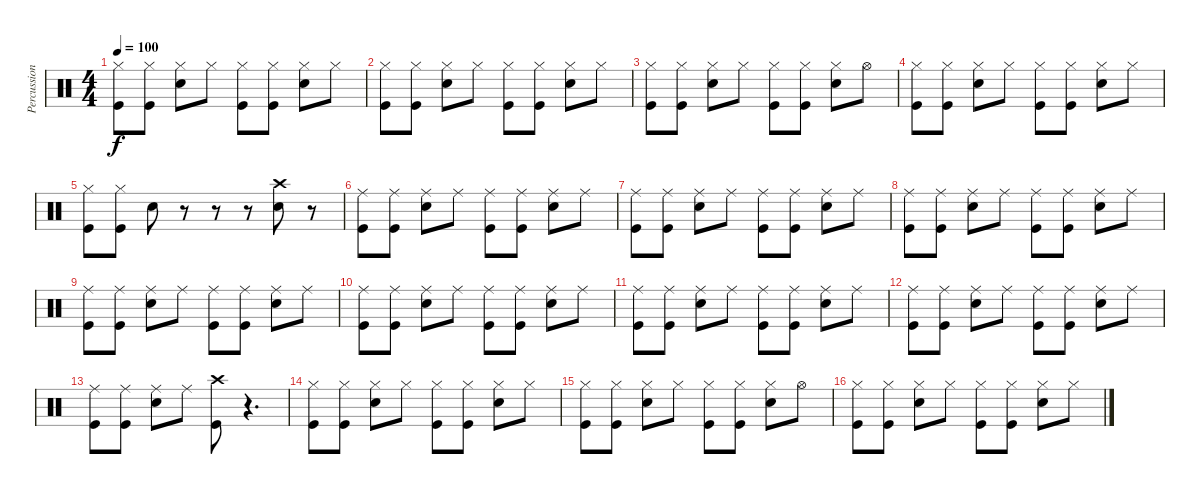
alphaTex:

\track ("Percussions" "Percussion") {instrument percussion}
\staff {score}
\articulation defaults
\ts (4 4)
\tempo 100
\clef neutral
\ks c
("Hi-Hat (closed)" "Kick (hit)").8{dy f} ("Hi-Hat (closed)" "Kick (hit)").8 ("Hi-Hat (closed)" "Electric Snare (hit)").8 "Hi-Hat (closed)".8 ("Hi-Hat (closed)" "Kick (hit)").8 ("Hi-Hat (closed)" "Kick (hit)").8 ("Hi-Hat (closed)" "Electric Snare (hit)").8{volume 16} "Hi-Hat (closed)".8 |
("Hi-Hat (closed)" "Kick (hit)").8 ("Hi-Hat (closed)" "Kick (hit)").8 ("Hi-Hat (closed)" "Electric Snare (hit)").8 "Hi-Hat (closed)".8 ("Hi-Hat (closed)" "Kick (hit)").8 ("Hi-Hat (closed)" "Kick (hit)").8 ("Hi-Hat (closed)" "Electric Snare (hit)").8 "Hi-Hat (closed)".8 |
("Hi-Hat (closed)" "Kick (hit)").8 ("Hi-Hat (closed)" "Kick (hit)").8 ("Hi-Hat (closed)" "Electric Snare (hit)").8 "Hi-Hat (closed)".8 ("Hi-Hat (closed)" "Kick (hit)").8 ("Hi-Hat (closed)" "Kick (hit)").8 ("Hi-Hat (closed)" "Electric Snare (hit)").8 "Hi-Hat (open)".8 |
("Hi-Hat (closed)" "Kick (hit)").8 ("Hi-Hat (closed)" "Kick (hit)").8 ("Hi-Hat (closed)" "Electric Snare (hit)").8 "Hi-Hat (closed)".8 ("Hi-Hat (closed)" "Kick (hit)").8 ("Hi-Hat (closed)" "Kick (hit)").8 ("Hi-Hat (closed)" "Electric Snare (hit)").8 "Hi-Hat (closed)".8 |
("Hi-Hat (closed)" "Kick (hit)").8 ("Hi-Hat (closed)" "Kick (hit)").8 "Electric Snare (hit)".8 r.8 r.8 r.8 ("Crash high (hit)" "Electric Snare (hit)").8{volume 16} r.8 |
("Ride (middle)" "Kick (hit)").8 ("Ride (middle)" "Kick (hit)").8 ("Ride (middle)" "Electric Snare (hit)").8 "Ride (middle)".8 ("Ride (middle)" "Kick (hit)").8 ("Ride (middle)" "Kick (hit)").8 ("Ride (middle)" "Electric Snare (hit)").8 "Ride (middle)".8 |
("Ride (middle)" "Kick (hit)").8 ("Ride (middle)" "Kick (hit)").8 ("Ride (middle)" "Electric Snare (hit)").8 "Ride (middle)".8 ("Ride (middle)" "Kick (hit)").8 ("Ride (middle)" "Kick (hit)").8 ("Ride (middle)" "Electric Snare (hit)").8 "Ride (middle)".8 |
("Ride (middle)" "Kick (hit)").8 ("Ride (middle)" "Kick (hit)").8 ("Ride (middle)" "Electric Snare (hit)").8 "Ride (middle)".8 ("Ride (middle)" "Kick (hit)").8 ("Ride (middle)" "Kick (hit)").8 ("Ride (middle)" "Electric Snare (hit)").8 "Ride (middle)".8 |
("Ride (middle)" "Kick (hit)").8 ("Ride (middle)" "Kick (hit)").8 ("Ride (middle)" "Electric Snare (hit)").8 "Ride (middle)".8 ("Ride (middle)" "Kick (hit)").8 ("Ride (middle)" "Kick (hit)").8 ("Ride (middle)" "Electric Snare (hit)").8 "Ride (middle)".8 |
("Ride (middle)" "Kick (hit)").8 ("Ride (middle)" "Kick (hit)").8 ("Ride (middle)" "Electric Snare (hit)").8 "Ride (middle)".8 ("Ride (middle)" "Kick (hit)").8 ("Ride (middle)" "Kick (hit)").8 ("Ride (middle)" "Electric Snare (hit)").8 "Ride (middle)".8 |
("Ride (middle)" "Kick (hit)").8 ("Ride (middle)" "Kick (hit)").8 ("Ride (middle)" "Electric Snare (hit)").8 "Ride (middle)".8 ("Ride (middle)" "Kick (hit)").8 ("Ride (middle)" "Kick (hit)").8 ("Ride (middle)" "Electric Snare (hit)").8 "Ride (middle)".8 |
("Ride (middle)" "Kick (hit)").8 ("Ride (middle)" "Kick (hit)").8 ("Ride (middle)" "Electric Snare (hit)").8 "Ride (middle)".8 ("Ride (middle)" "Kick (hit)").8 ("Ride (middle)" "Kick (hit)").8 ("Ride (middle)" "Electric Snare (hit)").8 "Ride (middle)".8 |
("Ride (middle)" "Kick (hit)").8 ("Ride (middle)" "Kick (hit)").8 ("Ride (middle)" "Electric Snare (hit)").8 "Ride (middle)".8 ("Crash high (hit)" "Kick (hit)").8 r.4{d} |
("Hi-Hat (closed)" "Kick (hit)").8 ("Hi-Hat (closed)" "Kick (hit)").8 ("Hi-Hat (closed)" "Electric Snare (hit)").8 "Hi-Hat (closed)".8 ("Hi-Hat (closed)" "Kick (hit)").8 ("Hi-Hat (closed)" "Kick (hit)").8 ("Hi-Hat (closed)" "Electric Snare (hit)").8 "Hi-Hat (closed)".8 |
("Hi-Hat (closed)" "Kick (hit)").8 ("Hi-Hat (closed)" "Kick (hit)").8 ("Hi-Hat (closed)" "Electric Snare (hit)").8 "Hi-Hat (closed)".8 ("Hi-Hat (closed)" "Kick (hit)").8 ("Hi-Hat (closed)" "Kick (hit)").8 ("Hi-Hat (closed)" "Electric Snare (hit)").8 "Hi-Hat (open)".8 |
("Hi-Hat (closed)" "Kick (hit)").8 ("Hi-Hat (closed)" "Kick (hit)").8 ("Hi-Hat (closed)" "Electric Snare (hit)").8 "Hi-Hat (closed)".8 ("Hi-Hat (closed)" "Kick (hit)").8 ("Hi-Hat (closed)" "Kick (hit)").8 ("Hi-Hat (closed)" "Electric Snare (hit)").8 "Hi-Hat (closed)".8
